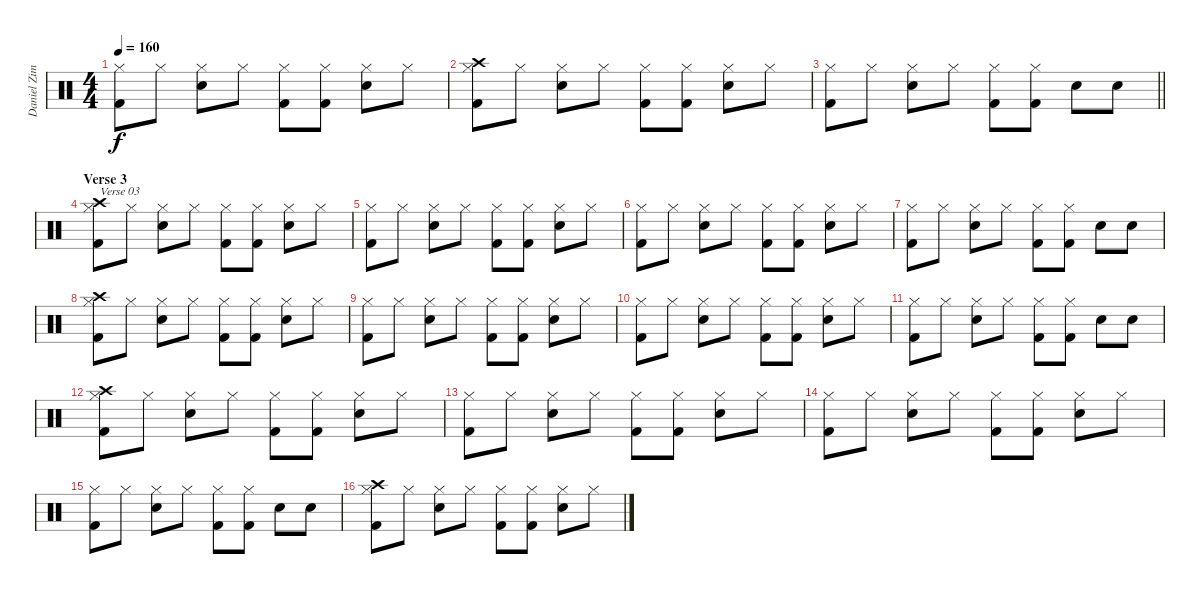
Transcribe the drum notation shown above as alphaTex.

\track ("Daniel Zimmermann" "Daniel Zim") {instrument percussion}
\staff {score}
\articulation defaults
\ts (4 4)
\tempo 160
\clef neutral
\ks c
("Hi-Hat (closed)" "Kick (hit) 2").8{dy f} "Hi-Hat (closed)".8 ("Hi-Hat (closed)" "Snare (hit) 2").8 "Hi-Hat (closed)".8 ("Hi-Hat (closed)" "Kick (hit) 2").8 ("Hi-Hat (closed)" "Kick (hit) 2").8 ("Hi-Hat (closed)" "Snare (hit) 2").8 "Hi-Hat (closed)".8 |
("Hi-Hat (closed)" "Kick (hit) 2" "Crash high (hit)").8 "Hi-Hat (closed)".8 ("Hi-Hat (closed)" "Snare (hit) 2").8 "Hi-Hat (closed)".8 ("Hi-Hat (closed)" "Kick (hit) 2").8 ("Hi-Hat (closed)" "Kick (hit) 2").8 ("Hi-Hat (closed)" "Snare (hit) 2").8 "Hi-Hat (closed)".8 |
\barLineRight lightlight
("Hi-Hat (closed)" "Kick (hit) 2").8 "Hi-Hat (closed)".8 ("Hi-Hat (closed)" "Snare (hit) 2").8 "Hi-Hat (closed)".8 ("Hi-Hat (closed)" "Kick (hit) 2").8 ("Hi-Hat (closed)" "Kick (hit) 2").8 "Snare (hit) 2".8 "Snare (hit) 2".8 |
\section ("" "Verse 3")
("Hi-Hat (closed)" "Kick (hit) 2" "Crash high (hit)").8{txt "Verse 03"} "Hi-Hat (closed)".8 ("Hi-Hat (closed)" "Snare (hit) 2").8 "Hi-Hat (closed)".8 ("Hi-Hat (closed)" "Kick (hit) 2").8 ("Hi-Hat (closed)" "Kick (hit) 2").8 ("Hi-Hat (closed)" "Snare (hit) 2").8 "Hi-Hat (closed)".8 |
("Hi-Hat (closed)" "Kick (hit) 2").8 "Hi-Hat (closed)".8 ("Hi-Hat (closed)" "Snare (hit) 2").8 "Hi-Hat (closed)".8 ("Hi-Hat (closed)" "Kick (hit) 2").8 ("Hi-Hat (closed)" "Kick (hit) 2").8 ("Hi-Hat (closed)" "Snare (hit) 2").8 "Hi-Hat (closed)".8 |
("Hi-Hat (closed)" "Kick (hit) 2").8 "Hi-Hat (closed)".8 ("Hi-Hat (closed)" "Snare (hit) 2").8 "Hi-Hat (closed)".8 ("Hi-Hat (closed)" "Kick (hit) 2").8 ("Hi-Hat (closed)" "Kick (hit) 2").8 ("Hi-Hat (closed)" "Snare (hit) 2").8 "Hi-Hat (closed)".8 |
("Hi-Hat (closed)" "Kick (hit) 2").8 "Hi-Hat (closed)".8 ("Hi-Hat (closed)" "Snare (hit) 2").8 "Hi-Hat (closed)".8 ("Hi-Hat (closed)" "Kick (hit) 2").8 ("Hi-Hat (closed)" "Kick (hit) 2").8 "Snare (hit) 2".8 "Snare (hit) 2".8 |
("Hi-Hat (closed)" "Kick (hit) 2" "Crash high (hit)").8 "Hi-Hat (closed)".8 ("Hi-Hat (closed)" "Snare (hit) 2").8 "Hi-Hat (closed)".8 ("Hi-Hat (closed)" "Kick (hit) 2").8 ("Hi-Hat (closed)" "Kick (hit) 2").8 ("Hi-Hat (closed)" "Snare (hit) 2").8 "Hi-Hat (closed)".8 |
("Hi-Hat (closed)" "Kick (hit) 2").8 "Hi-Hat (closed)".8 ("Hi-Hat (closed)" "Snare (hit) 2").8 "Hi-Hat (closed)".8 ("Hi-Hat (closed)" "Kick (hit) 2").8 ("Hi-Hat (closed)" "Kick (hit) 2").8 ("Hi-Hat (closed)" "Snare (hit) 2").8 "Hi-Hat (closed)".8 |
("Hi-Hat (closed)" "Kick (hit) 2").8 "Hi-Hat (closed)".8 ("Hi-Hat (closed)" "Snare (hit) 2").8 "Hi-Hat (closed)".8 ("Hi-Hat (closed)" "Kick (hit) 2").8 ("Hi-Hat (closed)" "Kick (hit) 2").8 ("Hi-Hat (closed)" "Snare (hit) 2").8 "Hi-Hat (closed)".8 |
("Hi-Hat (closed)" "Kick (hit) 2").8 "Hi-Hat (closed)".8 ("Hi-Hat (closed)" "Snare (hit) 2").8 "Hi-Hat (closed)".8 ("Hi-Hat (closed)" "Kick (hit) 2").8 ("Hi-Hat (closed)" "Kick (hit) 2").8 "Snare (hit) 2".8 "Snare (hit) 2".8 |
("Hi-Hat (closed)" "Kick (hit) 2" "Crash high (hit)").8 "Hi-Hat (closed)".8 ("Hi-Hat (closed)" "Snare (hit) 2").8 "Hi-Hat (closed)".8 ("Hi-Hat (closed)" "Kick (hit) 2").8 ("Hi-Hat (closed)" "Kick (hit) 2").8 ("Hi-Hat (closed)" "Snare (hit) 2").8 "Hi-Hat (closed)".8 |
("Hi-Hat (closed)" "Kick (hit) 2").8 "Hi-Hat (closed)".8 ("Hi-Hat (closed)" "Snare (hit) 2").8 "Hi-Hat (closed)".8 ("Hi-Hat (closed)" "Kick (hit) 2").8 ("Hi-Hat (closed)" "Kick (hit) 2").8 ("Hi-Hat (closed)" "Snare (hit) 2").8 "Hi-Hat (closed)".8 |
("Hi-Hat (closed)" "Kick (hit) 2").8 "Hi-Hat (closed)".8 ("Hi-Hat (closed)" "Snare (hit) 2").8 "Hi-Hat (closed)".8 ("Hi-Hat (closed)" "Kick (hit) 2").8 ("Hi-Hat (closed)" "Kick (hit) 2").8 ("Hi-Hat (closed)" "Snare (hit) 2").8 "Hi-Hat (closed)".8 |
("Hi-Hat (closed)" "Kick (hit) 2").8 "Hi-Hat (closed)".8 ("Hi-Hat (closed)" "Snare (hit) 2").8 "Hi-Hat (closed)".8 ("Hi-Hat (closed)" "Kick (hit) 2").8 ("Hi-Hat (closed)" "Kick (hit) 2").8 "Snare (hit) 2".8 "Snare (hit) 2".8 |
("Hi-Hat (closed)" "Kick (hit) 2" "Crash high (hit)").8 "Hi-Hat (closed)".8 ("Hi-Hat (closed)" "Snare (hit) 2").8 "Hi-Hat (closed)".8 ("Hi-Hat (closed)" "Kick (hit) 2").8 ("Hi-Hat (closed)" "Kick (hit) 2").8 ("Hi-Hat (closed)" "Snare (hit) 2").8 "Hi-Hat (closed)".8
